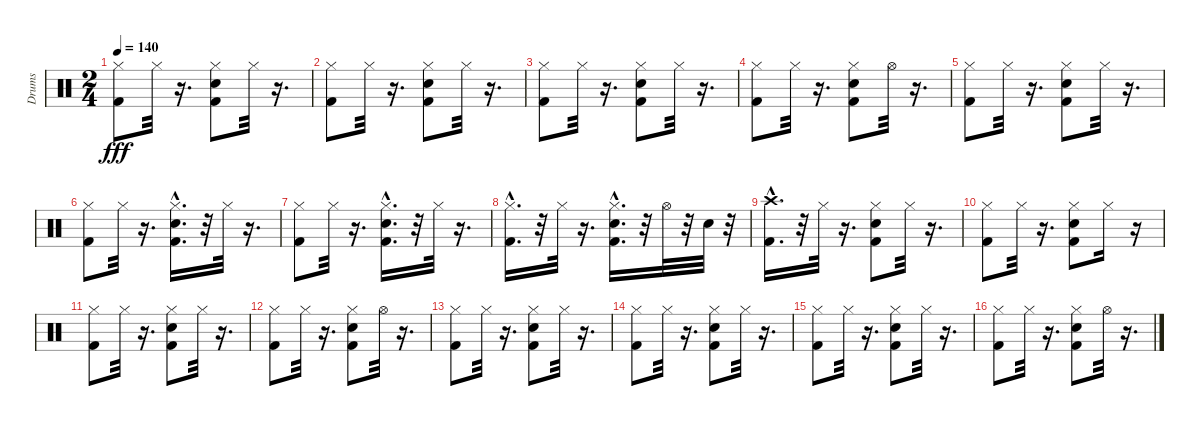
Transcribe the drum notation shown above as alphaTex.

\track ("Drums" "Drums") {instrument percussion}
\staff {score}
\articulation defaults
\ts (2 4)
\tempo 140
\clef neutral
\ks c
("Kick (hit) 2" "Hi-Hat (closed)").8{dy fff} "Hi-Hat (closed)".32 r.16{d} ("Snare (hit) 2" "Kick (hit) 2" "Hi-Hat (closed)").8 "Hi-Hat (closed)".32 r.16{d} |
("Kick (hit) 2" "Hi-Hat (closed)").8 "Hi-Hat (closed)".32 r.16{d} ("Kick (hit) 2" "Hi-Hat (closed)" "Snare (hit) 2").8 "Hi-Hat (closed)".32 r.16{d} |
("Kick (hit) 2" "Hi-Hat (closed)").8 "Hi-Hat (closed)".32 r.16{d} ("Kick (hit) 2" "Hi-Hat (closed)" "Snare (hit) 2").8 "Hi-Hat (closed)".32 r.16{d} |
("Kick (hit) 2" "Hi-Hat (closed)").8 "Hi-Hat (closed)".32 r.16{d} ("Snare (hit) 2" "Kick (hit) 2" "Hi-Hat (closed)").8 "Hi-Hat (open)".32 r.16{d} |
("Kick (hit) 2" "Hi-Hat (closed)").8 "Hi-Hat (closed)".32 r.16{d} ("Snare (hit) 2" "Kick (hit) 2" "Hi-Hat (closed)").8 "Hi-Hat (closed)".32 r.16{d} |
("Kick (hit) 2" "Hi-Hat (closed)").8 "Hi-Hat (closed)".32 r.16{d} ("Snare (hit) 2"{hac} "Kick (hit) 2"{hac} "Hi-Hat (closed)").16{d} r.32 "Hi-Hat (closed)".32 r.16{d} |
("Kick (hit) 2" "Hi-Hat (closed)").8 "Hi-Hat (closed)".32 r.16{d} ("Snare (hit) 2"{hac} "Kick (hit) 2"{hac} "Hi-Hat (closed)").16{d} r.32 "Hi-Hat (closed)".32 r.16{d} |
("Kick (hit) 2"{hac} "Hi-Hat (closed)").16{d} r.32 "Hi-Hat (closed)".32 r.16{d} ("Kick (hit) 2"{hac} "Hi-Hat (closed)" "Snare (hit) 2"{hac}).16{d} r.32 "Hi-Hat (open)".32 r.32 "Snare (hit) 2".32 r.32 |
("Kick (hit) 2"{hac} "Crash high (hit)").16{d} r.32 "Hi-Hat (closed)".32 r.16{d} ("Hi-Hat (closed)" "Kick (hit) 2" "Snare (hit) 2").8 "Hi-Hat (closed)".32 r.16{d} |
("Kick (hit) 2" "Hi-Hat (closed)").8 "Hi-Hat (closed)".32 r.16{d} ("Snare (hit) 2" "Kick (hit) 2" "Hi-Hat (closed)").8 "Hi-Hat (closed)".16 r.16 |
("Kick (hit) 2" "Hi-Hat (closed)").8 "Hi-Hat (closed)".32 r.16{d} ("Hi-Hat (closed)" "Snare (hit) 2" "Kick (hit) 2").8 "Hi-Hat (closed)".32 r.16{d} |
("Kick (hit) 2" "Hi-Hat (closed)").8 "Hi-Hat (closed)".32 r.16{d} ("Snare (hit) 2" "Hi-Hat (closed)" "Kick (hit) 2").8 "Hi-Hat (open)".32 r.16{d} |
("Kick (hit) 2" "Hi-Hat (closed)").8 "Hi-Hat (closed)".32 r.16{d} ("Snare (hit) 2" "Kick (hit) 2" "Hi-Hat (closed)").8 "Hi-Hat (closed)".32 r.16{d} |
("Kick (hit) 2" "Hi-Hat (closed)").8 "Hi-Hat (closed)".32 r.16{d} ("Hi-Hat (closed)" "Snare (hit) 2" "Kick (hit) 2").8 "Hi-Hat (closed)".32 r.16{d} |
("Kick (hit) 2" "Hi-Hat (closed)").8 "Hi-Hat (closed)".32 r.16{d} ("Snare (hit) 2" "Kick (hit) 2" "Hi-Hat (closed)").8 "Hi-Hat (closed)".32 r.16{d} |
("Kick (hit) 2" "Hi-Hat (closed)").8 "Hi-Hat (closed)".32 r.16{d} ("Kick (hit) 2" "Snare (hit) 2" "Hi-Hat (closed)").8 "Hi-Hat (open)".32 r.16{d}
